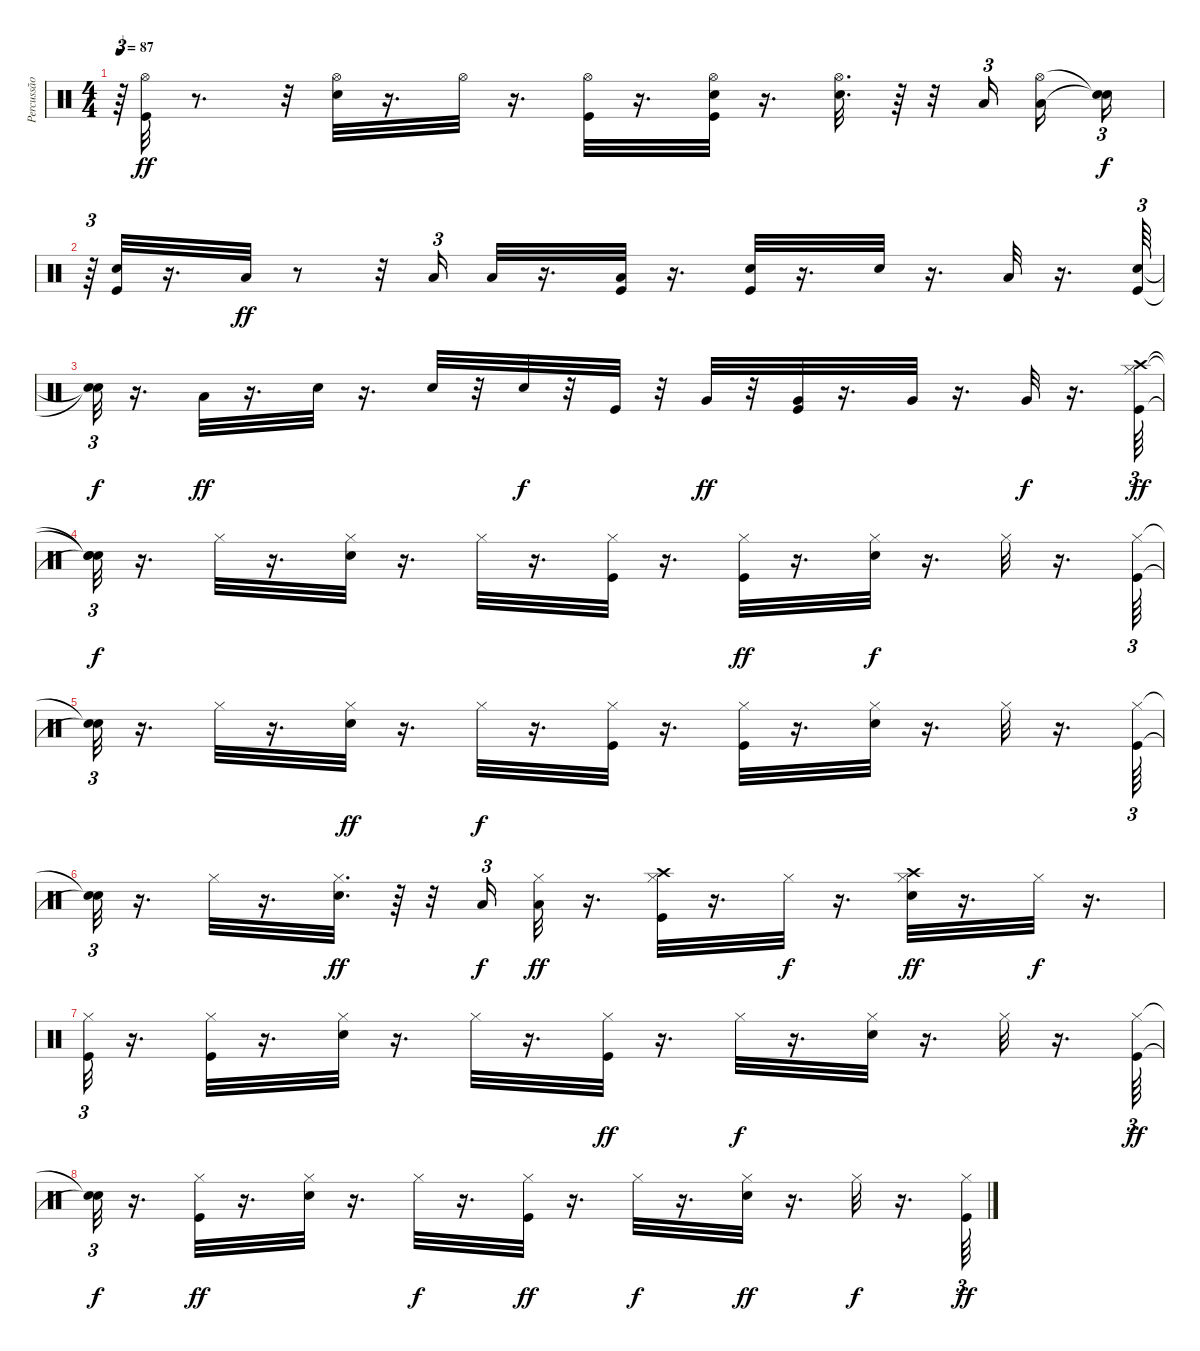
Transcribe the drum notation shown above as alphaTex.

\track ("Percussão" "Percussão") {instrument percussion}
\staff {score}
\articulation defaults
\ts (4 4)
\tempo 87
\clef neutral
\ks c
r.64{tu (3 2) dy ff} ("Kick (hit)" "Hi-Hat (open)").32 r.8{d} r.32 ("Electric Snare (hit)" "Hi-Hat (open)").32 r.16{d} "Hi-Hat (open)".32 r.16{d} ("Kick (hit)" "Hi-Hat (open)").32 r.16{d} ("Kick (hit)" "Electric Snare (hit)" "Hi-Hat (open)").32 r.16{d} ("Electric Snare (hit)" "Hi-Hat (open)").32{d} r.64 r.32 "Low Tom (hit)".16{tu (3 2) beam splitsecondary} ("Hi-Hat (open)" "Low Tom (hit)").16 ("Snare (hit)"{t} "Snare (hit)"{t}).16{tu (3 2) dy f} |
r.64{tu (3 2)} ("Kick (hit)" "Electric Snare (hit)").32 r.16{d} "Low Tom (hit)".32{dy ff} r.8 r.32 "Low Tom (hit)".16{tu (3 2)} "Low Tom (hit)".32 r.16{d} ("Kick (hit)" "Low Tom (hit)").32 r.16{d} ("Kick (hit)" "Electric Snare (hit)").32 r.16{d} "Electric Snare (hit)".32 r.16{d} "Low Tom (hit)".32 r.16{d} ("Kick (hit)" "Electric Snare (hit)").64{tu (3 2)} |
("Snare (hit)"{t} "Snare (hit)"{t}).32{tu (3 2) dy f} r.16{d} "Low Tom (hit)".32{dy ff} r.16{d} "Electric Snare (hit)".32 r.16{d} "Electric Snare (hit)".32 r.32 "Electric Snare (hit)".32{dy f} r.32 "Kick (hit)".32 r.32 "Very Low Tom (hit)".32{dy ff} r.32 ("Kick (hit)" "Very Low Tom (hit)").32 r.16{d} "Very Low Tom (hit)".32 r.16{d} "Very Low Tom (hit)".32{dy f} r.16{d} ("Kick (hit)" "Hi-Hat (closed)" "Crash high (hit)").64{tu (3 2) dy ff} |
("Snare (hit)"{t} "Snare (hit)"{t} "Snare (hit)"{t}).32{tu (3 2) dy f} r.16{d} "Hi-Hat (closed)".32 r.16{d} ("Electric Snare (hit)" "Hi-Hat (closed)").32 r.16{d} "Hi-Hat (closed)".32 r.16{d} ("Kick (hit)" "Hi-Hat (closed)").32 r.16{d} ("Kick (hit)" "Hi-Hat (closed)").32{dy ff} r.16{d} ("Electric Snare (hit)" "Hi-Hat (closed)").32{dy f} r.16{d} "Hi-Hat (closed)".32 r.16{d} ("Kick (hit)" "Hi-Hat (closed)").64{tu (3 2)} |
("Snare (hit)"{t} "Snare (hit)"{t}).32{tu (3 2)} r.16{d} "Hi-Hat (closed)".32 r.16{d} ("Electric Snare (hit)" "Hi-Hat (closed)").32{dy ff} r.16{d} "Hi-Hat (closed)".32{dy f} r.16{d} ("Kick (hit)" "Hi-Hat (closed)").32 r.16{d} ("Kick (hit)" "Hi-Hat (closed)").32 r.16{d} ("Electric Snare (hit)" "Hi-Hat (closed)").32 r.16{d} "Hi-Hat (closed)".32 r.16{d} ("Kick (hit)" "Hi-Hat (closed)").64{tu (3 2)} |
("Snare (hit)"{t} "Snare (hit)"{t}).32{tu (3 2)} r.16{d} "Hi-Hat (closed)".32 r.16{d} ("Electric Snare (hit)" "Hi-Hat (closed)").32{d dy ff} r.64 r.32 "Low Tom (hit)".16{tu (3 2) dy f} ("Hi-Hat (closed)" "Low Tom (hit)").32{dy ff} r.16{d} ("Kick (hit)" "Hi-Hat (closed)" "Crash high (hit)").32 r.16{d} "Hi-Hat (closed)".32{dy f} r.16{d} ("Electric Snare (hit)" "Hi-Hat (closed)" "Crash high (hit)").32{dy ff} r.16{d} "Hi-Hat (closed)".32{dy f} r.16{d} |
("Kick (hit)" "Hi-Hat (closed)").32{tu (3 2)} r.16{d} ("Kick (hit)" "Hi-Hat (closed)").32 r.16{d} ("Electric Snare (hit)" "Hi-Hat (closed)").32 r.16{d} "Hi-Hat (closed)".32 r.16{d} ("Kick (hit)" "Hi-Hat (closed)").32{dy ff} r.16{d} "Hi-Hat (closed)".32{dy f} r.16{d} ("Electric Snare (hit)" "Hi-Hat (closed)").32 r.16{d} "Hi-Hat (closed)".32 r.16{d} ("Kick (hit)" "Hi-Hat (closed)").64{tu (3 2) dy ff} |
("Snare (hit)"{t} "Snare (hit)"{t}).32{tu (3 2) dy f} r.16{d} ("Kick (hit)" "Hi-Hat (closed)").32{dy ff} r.16{d} ("Electric Snare (hit)" "Hi-Hat (closed)").32 r.16{d} "Hi-Hat (closed)".32{dy f} r.16{d} ("Kick (hit)" "Hi-Hat (closed)").32{dy ff} r.16{d} "Hi-Hat (closed)".32{dy f} r.16{d} ("Electric Snare (hit)" "Hi-Hat (closed)").32{dy ff} r.16{d} "Hi-Hat (closed)".32{dy f} r.16{d} ("Kick (hit)" "Hi-Hat (closed)").64{tu (3 2) dy ff}
